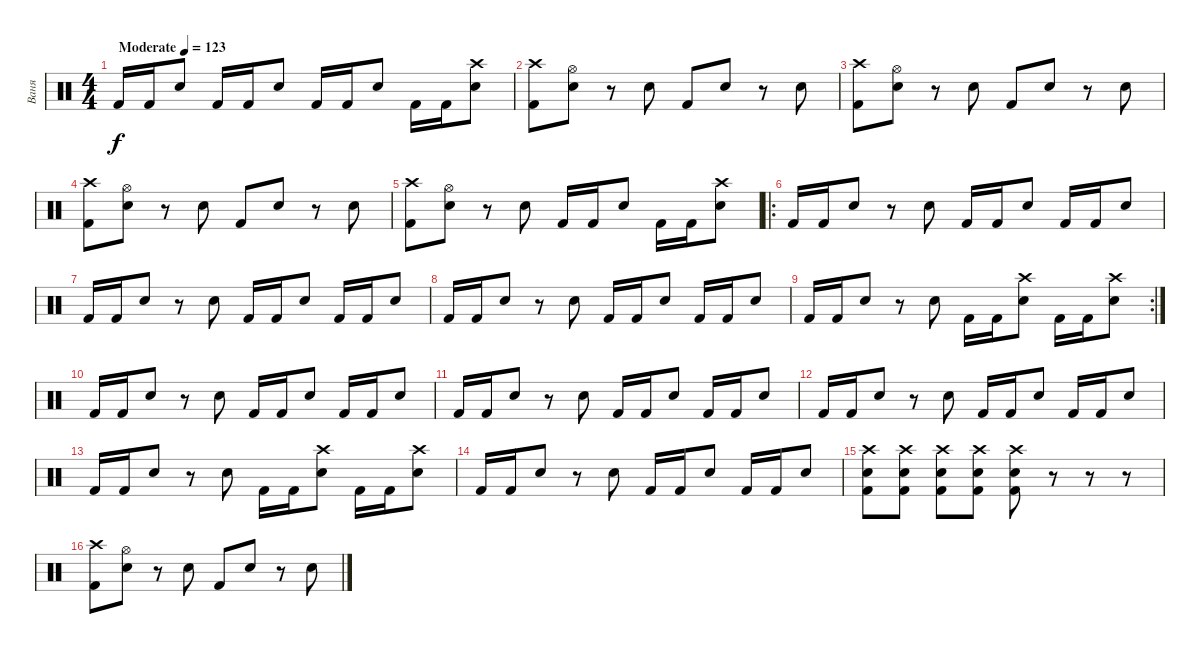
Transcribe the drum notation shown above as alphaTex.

\track ("Ваня" "Ваня") {instrument percussion}
\staff {score}
\articulation defaults
\ts (4 4)
\tempo (123 "Moderate")
\clef neutral
\ks c "Kick (hit) 2".16{dy f} "Kick (hit) 2".16 "Snare (hit) 2".8 "Kick (hit) 2".16 "Kick (hit) 2".16 "Snare (hit) 2".8 "Kick (hit) 2".16 "Kick (hit) 2".16 "Snare (hit) 2".8 "Kick (hit) 2".16 "Kick (hit) 2".16
("Crash high (hit)" "Snare (hit) 2").8 |
("Crash high (hit)" "Kick (hit) 2").8 ("Hi-Hat (open)" "Snare (hit) 2").8 r.8 "Snare (hit) 2".8 "Kick (hit) 2".8 "Snare (hit) 2".8 r.8 "Snare (hit) 2".8 |
("Crash high (hit)" "Kick (hit) 2").8 ("Hi-Hat (open)" "Snare (hit) 2").8 r.8 "Snare (hit) 2".8 "Kick (hit) 2".8 "Snare (hit) 2".8 r.8 "Snare (hit) 2".8 |
("Crash high (hit)" "Kick (hit) 2").8 ("Hi-Hat (open)" "Snare (hit) 2").8 r.8 "Snare (hit) 2".8 "Kick (hit) 2".8 "Snare (hit) 2".8 r.8 "Snare (hit) 2".8 |
("Crash high (hit)" "Kick (hit) 2").8 ("Hi-Hat (open)" "Snare (hit) 2").8 r.8 "Snare (hit) 2".8 "Kick (hit) 2".16 "Kick (hit) 2".16 "Snare (hit) 2".8 "Kick (hit) 2".16 "Kick (hit) 2".16 ("Crash high (hit)" "Snare (hit) 2").8 |
\ro "Kick (hit) 2".16 "Kick (hit) 2".16 "Snare (hit) 2".8
r.8 "Snare (hit) 2".8 "Kick (hit) 2".16 "Kick (hit) 2".16 "Snare (hit) 2".8 "Kick (hit) 2".16 "Kick (hit) 2".16 "Snare (hit) 2".8 |
"Kick (hit) 2".16 "Kick (hit) 2".16 "Snare (hit) 2".8 r.8 "Snare (hit) 2".8 "Kick (hit) 2".16 "Kick (hit) 2".16 "Snare (hit) 2".8 "Kick (hit) 2".16 "Kick (hit) 2".16 "Snare (hit) 2".8 |
"Kick (hit) 2".16 "Kick (hit) 2".16 "Snare (hit) 2".8 r.8 "Snare (hit) 2".8 "Kick (hit) 2".16 "Kick (hit) 2".16 "Snare (hit) 2".8 "Kick (hit) 2".16 "Kick (hit) 2".16 "Snare (hit) 2".8 |
\rc 2 "Kick (hit) 2".16 "Kick (hit) 2".16 "Snare (hit) 2".8
r.8 "Snare (hit) 2".8 "Kick (hit) 2".16 "Kick (hit) 2".16 ("Crash high (hit)" "Snare (hit) 2").8 "Kick (hit) 2".16 "Kick (hit) 2".16 ("Crash high (hit)" "Snare (hit) 2").8 |
"Kick (hit) 2".16 "Kick (hit) 2".16 "Snare (hit) 2".8 r.8 "Snare (hit) 2".8 "Kick (hit) 2".16 "Kick (hit) 2".16 "Snare (hit) 2".8 "Kick (hit) 2".16 "Kick (hit) 2".16 "Snare (hit) 2".8 |
"Kick (hit) 2".16 "Kick (hit) 2".16 "Snare (hit) 2".8 r.8 "Snare (hit) 2".8 "Kick (hit) 2".16 "Kick (hit) 2".16 "Snare (hit) 2".8 "Kick (hit) 2".16 "Kick (hit) 2".16 "Snare (hit) 2".8 |
"Kick (hit) 2".16 "Kick (hit) 2".16 "Snare (hit) 2".8 r.8 "Snare (hit) 2".8 "Kick (hit) 2".16 "Kick (hit) 2".16 "Snare (hit) 2".8 "Kick (hit) 2".16 "Kick (hit) 2".16 "Snare (hit) 2".8 |
"Kick (hit) 2".16 "Kick (hit) 2".16 "Snare (hit) 2".8 r.8 "Snare (hit) 2".8 "Kick (hit) 2".16 "Kick (hit) 2".16 ("Crash high (hit)" "Snare (hit) 2").8 "Kick (hit) 2".16 "Kick (hit) 2".16 ("Crash high (hit)" "Snare (hit) 2").8 |
"Kick (hit) 2".16 "Kick (hit) 2".16 "Snare (hit) 2".8 r.8 "Snare (hit) 2".8 "Kick (hit) 2".16 "Kick (hit) 2".16 "Snare (hit) 2".8 "Kick (hit) 2".16 "Kick (hit) 2".16 "Snare (hit) 2".8 |
("Crash high (hit)" "Kick (hit) 2" "Snare (hit) 2").8 ("Crash high (hit)" "Kick (hit) 2" "Snare (hit) 2").8 ("Crash high (hit)" "Kick (hit) 2" "Snare (hit) 2").8 ("Crash high (hit)" "Kick (hit) 2" "Snare (hit) 2").8 ("Crash high (hit)" "Kick (hit) 2" "Snare (hit) 2").8 r.8 r.8 r.8 |
("Crash high (hit)" "Kick (hit) 2").8 ("Hi-Hat (open)" "Snare (hit) 2").8 r.8 "Snare (hit) 2".8 "Kick (hit) 2".8 "Snare (hit) 2".8 r.8 "Snare (hit) 2".8
